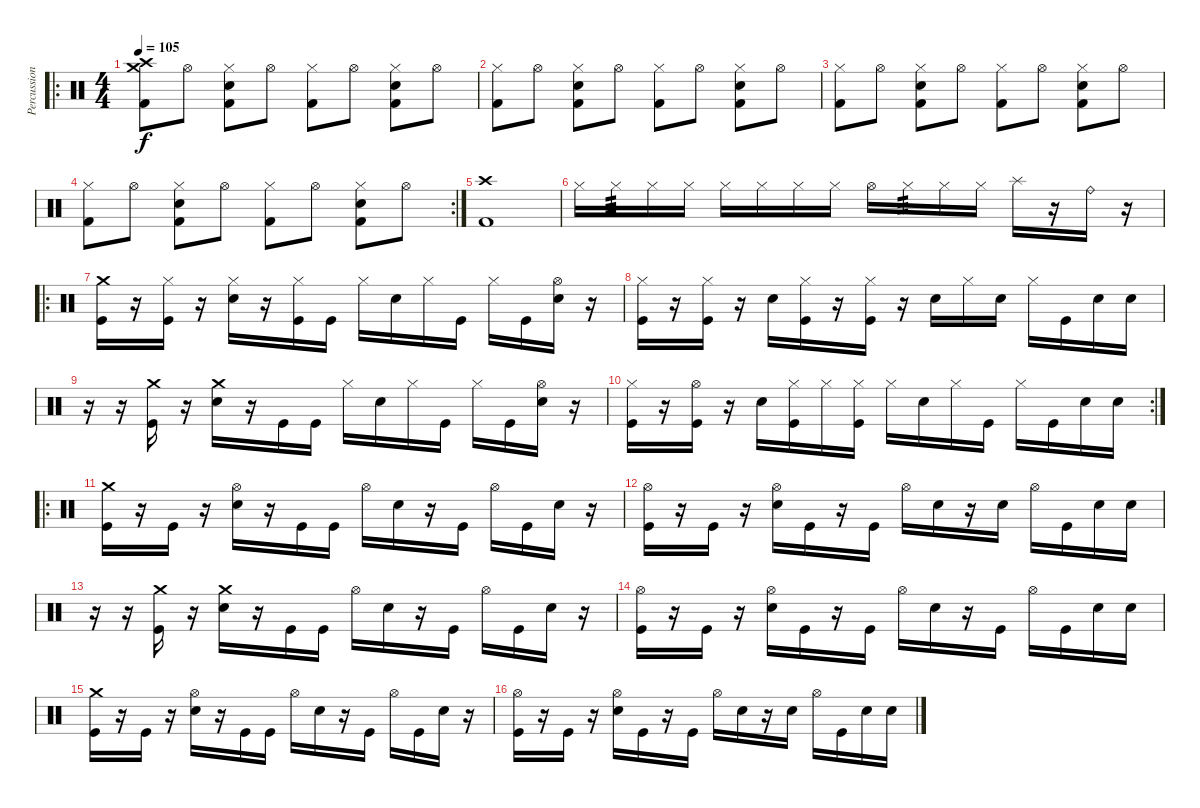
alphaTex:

\track ("Percussion" "Percussion") {instrument percussion}
\staff {score}
\articulation defaults
\ro
\ts (4 4)
\tempo 105
\clef neutral
\ks c
("Crash medium (hit)" "Crash high (hit)" "Kick (hit) 2").8{dy f} "Hi-Hat (open)".8 ("Hi-Hat (closed)" "Kick (hit) 2" "Electric Snare (hit)").8 "Hi-Hat (open)".8 ("Hi-Hat (closed)" "Kick (hit) 2").8 "Hi-Hat (open)".8 ("Hi-Hat (closed)" "Kick (hit) 2" "Electric Snare (hit)").8 "Hi-Hat (open)".8 |
("Hi-Hat (closed)" "Kick (hit) 2").8 "Hi-Hat (open)".8 ("Hi-Hat (closed)" "Kick (hit) 2" "Electric Snare (hit)").8 "Hi-Hat (open)".8 ("Hi-Hat (closed)" "Kick (hit) 2").8 "Hi-Hat (open)".8 ("Hi-Hat (closed)" "Kick (hit) 2" "Electric Snare (hit)").8 "Hi-Hat (open)".8 |
("Hi-Hat (closed)" "Kick (hit) 2").8 "Hi-Hat (open)".8 ("Hi-Hat (closed)" "Kick (hit) 2" "Electric Snare (hit)").8 "Hi-Hat (open)".8 ("Hi-Hat (closed)" "Kick (hit) 2").8 "Hi-Hat (open)".8 ("Hi-Hat (closed)" "Kick (hit) 2" "Electric Snare (hit)").8 "Hi-Hat (open)".8 |
\rc 2
("Hi-Hat (closed)" "Kick (hit) 2").8 "Hi-Hat (open)".8 ("Hi-Hat (closed)" "Kick (hit) 2" "Electric Snare (hit)").8 "Hi-Hat (open)".8 ("Hi-Hat (closed)" "Kick (hit) 2").8 "Hi-Hat (open)".8 ("Hi-Hat (closed)" "Kick (hit) 2" "Electric Snare (hit)").8 "Hi-Hat (open)".8 |
("Crash high (hit)" "Kick (hit) 2").1 |
"Hi-Hat (closed)".16 "Hi-Hat (closed)".16{tp 3} "Hi-Hat (closed)".16 "Hi-Hat (closed)".16 "Hi-Hat (closed)".16 "Hi-Hat (closed)".16 "Hi-Hat (closed)".16 "Hi-Hat (closed)".16 "Hi-Hat (open)".16 "Hi-Hat (closed)".16{tp 3} "Hi-Hat (closed)".16 "Hi-Hat (closed)".16 "Splash (hit)".16 r.16 "Ride (bell)".16 r.16 |
\ro
("Crash medium (hit)" "Kick (hit)").16 r.16 ("Hi-Hat (closed)" "Kick (hit)").16 r.16 ("Hi-Hat (closed)" "Electric Snare (hit)").16 r.16 ("Hi-Hat (closed)" "Kick (hit)").16 "Kick (hit)".16 "Hi-Hat (closed)".16 "Electric Snare (hit)".16 "Hi-Hat (closed)".16 "Kick (hit)".16 "Hi-Hat (closed)".16 "Kick (hit)".16 ("Hi-Hat (open)" "Electric Snare (hit)").16 r.16 |
("Hi-Hat (closed)" "Kick (hit)").16 r.16 ("Hi-Hat (closed)" "Kick (hit)").16 r.16 "Electric Snare (hit)".16 ("Hi-Hat (closed)" "Kick (hit)").16 r.16 ("Hi-Hat (closed)" "Kick (hit)").16 r.16 "Electric Snare (hit)".16 "Hi-Hat (closed)".16 "Electric Snare (hit)".16 "Hi-Hat (closed)".16 "Kick (hit)".16 "Electric Snare (hit)".16 "Electric Snare (hit)".16 |
r.16 r.16 ("Crash medium (hit)" "Kick (hit)").16 r.16 ("Crash medium (hit)" "Electric Snare (hit)").16 r.16 "Kick (hit)".16 "Kick (hit)".16 "Hi-Hat (closed)".16 "Electric Snare (hit)".16 "Hi-Hat (closed)".16 "Kick (hit)".16 "Hi-Hat (closed)".16 "Kick (hit)".16 ("Hi-Hat (open)" "Electric Snare (hit)").16 r.16 |
\rc 2
("Hi-Hat (closed)" "Kick (hit)").16 r.16 ("Hi-Hat (open)" "Kick (hit)").16 r.16 "Electric Snare (hit)".16 ("Hi-Hat (closed)" "Kick (hit)").16 "Hi-Hat (closed)".16 ("Hi-Hat (closed)" "Kick (hit)").16 "Hi-Hat (closed)".16 "Electric Snare (hit)".16 "Hi-Hat (closed)".16 "Kick (hit)".16 "Hi-Hat (closed)".16 "Kick (hit)".16 "Electric Snare (hit)".16 "Electric Snare (hit)".16 |
\ro
("Crash medium (hit)" "Kick (hit)").16 r.16 "Kick (hit)".16 r.16 ("Hi-Hat (open)" "Electric Snare (hit)").16 r.16 "Kick (hit)".16 "Kick (hit)".16 "Hi-Hat (open)".16 "Electric Snare (hit)".16 r.16 "Kick (hit)".16 "Hi-Hat (open)".16 "Kick (hit)".16 "Electric Snare (hit)".16 r.16 |
("Hi-Hat (open)" "Kick (hit)").16 r.16 "Kick (hit)".16 r.16 ("Hi-Hat (open)" "Electric Snare (hit)").16 "Kick (hit)".16 r.16 "Kick (hit)".16 "Hi-Hat (open)".16 "Electric Snare (hit)".16 r.16 "Electric Snare (hit)".16 "Hi-Hat (open)".16 "Kick (hit)".16 "Electric Snare (hit)".16 "Electric Snare (hit)".16 |
r.16 r.16 ("Crash medium (hit)" "Kick (hit)").16 r.16 ("Crash medium (hit)" "Electric Snare (hit)").16 r.16 "Kick (hit)".16 "Kick (hit)".16 "Hi-Hat (open)".16 "Electric Snare (hit)".16 r.16 "Kick (hit)".16 "Hi-Hat (open)".16 "Kick (hit)".16 "Electric Snare (hit)".16 r.16 |
("Hi-Hat (open)" "Kick (hit)").16 r.16 "Kick (hit)".16 r.16 ("Hi-Hat (open)" "Electric Snare (hit)").16 "Kick (hit)".16 r.16 "Kick (hit)".16 "Hi-Hat (open)".16 "Electric Snare (hit)".16 r.16 "Kick (hit)".16 "Hi-Hat (open)".16 "Kick (hit)".16 "Electric Snare (hit)".16 "Electric Snare (hit)".16 |
("Crash medium (hit)" "Kick (hit)").16 r.16 "Kick (hit)".16 r.16 ("Hi-Hat (open)" "Electric Snare (hit)").16 r.16 "Kick (hit)".16 "Kick (hit)".16 "Hi-Hat (open)".16 "Electric Snare (hit)".16 r.16 "Kick (hit)".16 "Hi-Hat (open)".16 "Kick (hit)".16 "Electric Snare (hit)".16 r.16 |
("Hi-Hat (open)" "Kick (hit)").16 r.16 "Kick (hit)".16 r.16 ("Hi-Hat (open)" "Electric Snare (hit)").16 "Kick (hit)".16 r.16 "Kick (hit)".16 "Hi-Hat (open)".16 "Electric Snare (hit)".16 r.16 "Electric Snare (hit)".16 "Hi-Hat (open)".16 "Kick (hit)".16 "Electric Snare (hit)".16 "Electric Snare (hit)".16
